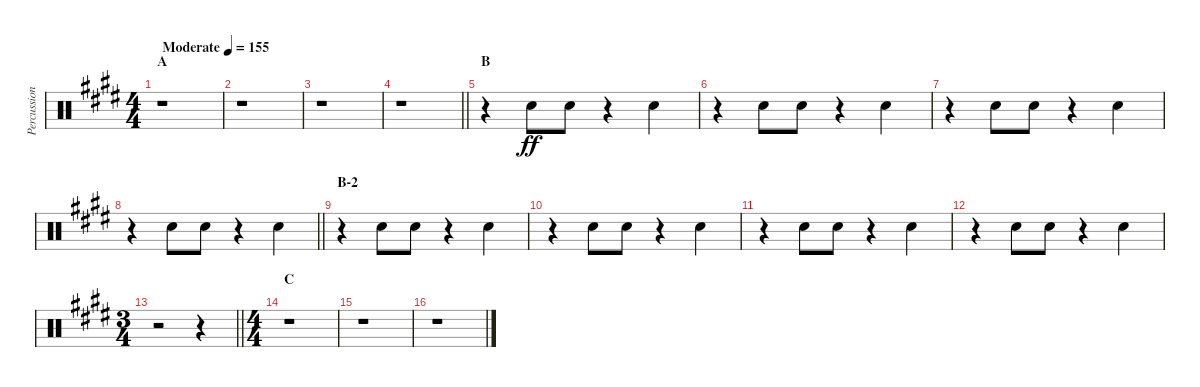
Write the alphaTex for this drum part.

\track ("Percussion" "Percussion") {instrument percussion}
\staff {score}
\articulation defaults
\ts (4 4)
\section ("" "A")
\tempo (155 "Moderate")
\clef neutral
\ks e
r.1{dy ff} |
r.1 |
r.1 |
\barLineRight lightlight
r.1 |
\section ("" "B")
r.4 "Hand Clap (hit)".8 "Hand Clap (hit)".8 r.4 "Hand Clap (hit)".4 |
r.4 "Hand Clap (hit)".8 "Hand Clap (hit)".8 r.4 "Hand Clap (hit)".4 |
r.4 "Hand Clap (hit)".8 "Hand Clap (hit)".8 r.4 "Hand Clap (hit)".4 |
\barLineRight lightlight
r.4 "Hand Clap (hit)".8 "Hand Clap (hit)".8 r.4 "Hand Clap (hit)".4 |
\section ("" "B-2")
r.4 "Hand Clap (hit)".8 "Hand Clap (hit)".8 r.4 "Hand Clap (hit)".4 |
r.4 "Hand Clap (hit)".8 "Hand Clap (hit)".8 r.4 "Hand Clap (hit)".4 |
r.4 "Hand Clap (hit)".8 "Hand Clap (hit)".8 r.4 "Hand Clap (hit)".4 |
r.4 "Hand Clap (hit)".8 "Hand Clap (hit)".8 r.4 "Hand Clap (hit)".4 |
\ts (3 4)
\barLineRight lightlight
r.2 r.4 |
\ts (4 4)
\section ("" "C")
r.1 |
r.1 |
r.1
